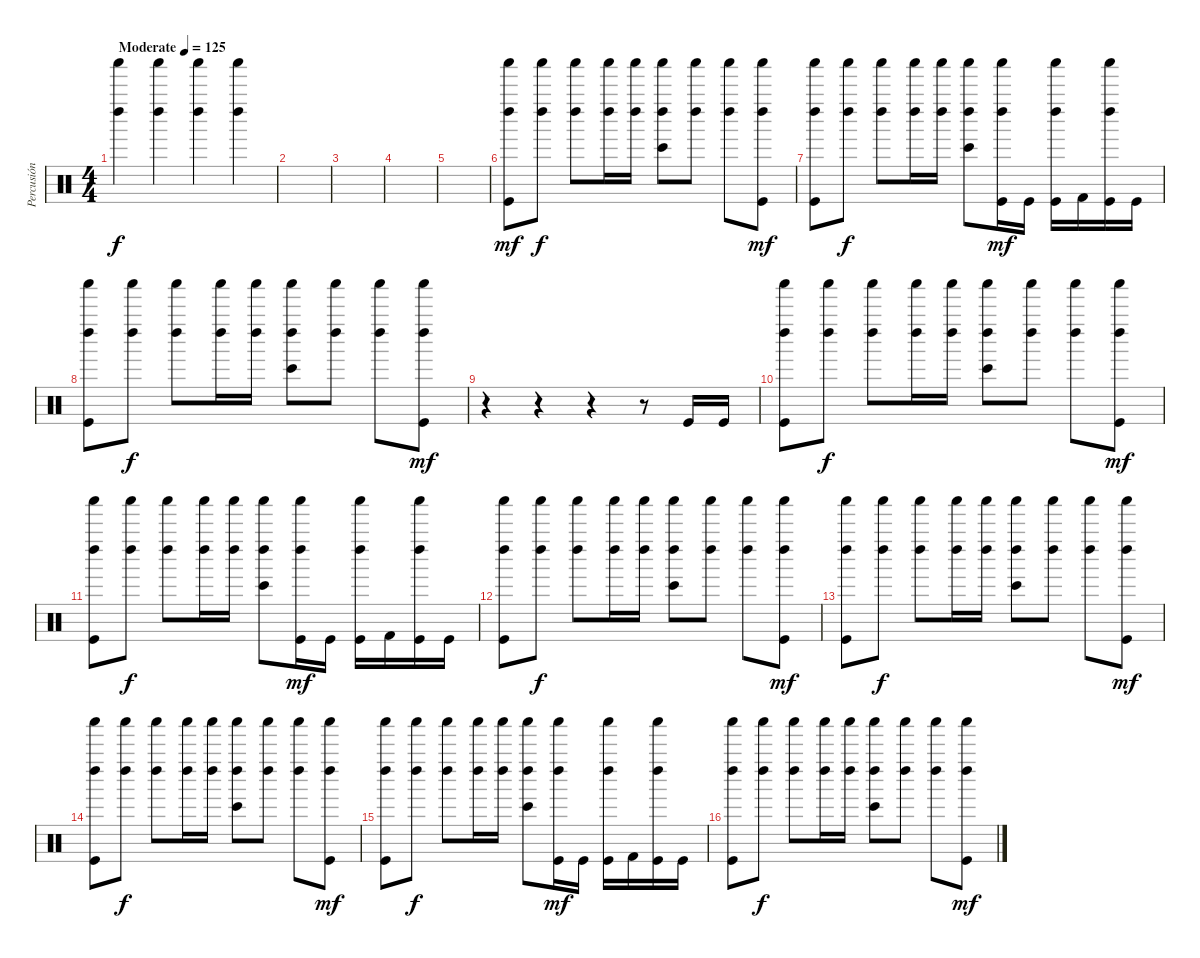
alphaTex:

\track ("Percusión" "Percusión") {instrument percussion}
\staff {score}
\articulation defaults
\ts (4 4)
\tempo (125 "Moderate")
\clef neutral
\ks c
("Shaker (hit)" "Left Maraca (hit)").4{dy f} ("Shaker (hit)" "Left Maraca (hit)").4 ("Shaker (hit)" "Left Maraca (hit)").4 ("Shaker (hit)" "Left Maraca (hit)").4 |
|
|
|
|
("Shaker (hit)" "Left Maraca (hit)" "Kick (hit)").8{dy mf} ("Shaker (hit)" "Left Maraca (hit)").8{dy f} ("Shaker (hit)" "Left Maraca (hit)").8 ("Shaker (hit)" "Left Maraca (hit)").16 ("Shaker (hit)" "Left Maraca (hit)").16 ("Shaker (hit)" "Left Maraca (hit)" "Bongo High (hit)").8 ("Shaker (hit)" "Left Maraca (hit)").8 ("Shaker (hit)" "Left Maraca (hit)").8 ("Shaker (hit)" "Left Maraca (hit)" "Kick (hit)").8{dy mf} |
("Shaker (hit)" "Left Maraca (hit)" "Kick (hit)").8 ("Shaker (hit)" "Left Maraca (hit)").8{dy f} ("Shaker (hit)" "Left Maraca (hit)").8 ("Shaker (hit)" "Left Maraca (hit)").16 ("Shaker (hit)" "Left Maraca (hit)").16 ("Shaker (hit)" "Left Maraca (hit)" "Bongo High (hit)").8 ("Shaker (hit)" "Left Maraca (hit)" "Kick (hit)").16{dy mf} "Kick (hit)".16 ("Shaker (hit)" "Left Maraca (hit)" "Kick (hit)").16 "Kick (hit) 2".16 ("Shaker (hit)" "Left Maraca (hit)" "Kick (hit)").16 "Kick (hit)".16 |
("Shaker (hit)" "Left Maraca (hit)" "Kick (hit)").8 ("Shaker (hit)" "Left Maraca (hit)").8{dy f} ("Shaker (hit)" "Left Maraca (hit)").8 ("Shaker (hit)" "Left Maraca (hit)").16 ("Shaker (hit)" "Left Maraca (hit)").16 ("Shaker (hit)" "Left Maraca (hit)" "Bongo High (hit)").8 ("Shaker (hit)" "Left Maraca (hit)").8 ("Shaker (hit)" "Left Maraca (hit)").8 ("Shaker (hit)" "Left Maraca (hit)" "Kick (hit)").8{dy mf} |
r.4 r.4 r.4 r.8 "Kick (hit)".16 "Kick (hit)".16 |
("Shaker (hit)" "Left Maraca (hit)" "Kick (hit)").8 ("Shaker (hit)" "Left Maraca (hit)").8{dy f} ("Shaker (hit)" "Left Maraca (hit)").8 ("Shaker (hit)" "Left Maraca (hit)").16 ("Shaker (hit)" "Left Maraca (hit)").16 ("Shaker (hit)" "Left Maraca (hit)" "Bongo High (hit)").8 ("Shaker (hit)" "Left Maraca (hit)").8 ("Shaker (hit)" "Left Maraca (hit)").8 ("Shaker (hit)" "Left Maraca (hit)" "Kick (hit)").8{dy mf} |
("Shaker (hit)" "Left Maraca (hit)" "Kick (hit)").8 ("Shaker (hit)" "Left Maraca (hit)").8{dy f} ("Shaker (hit)" "Left Maraca (hit)").8 ("Shaker (hit)" "Left Maraca (hit)").16 ("Shaker (hit)" "Left Maraca (hit)").16 ("Shaker (hit)" "Left Maraca (hit)" "Bongo High (hit)").8 ("Shaker (hit)" "Left Maraca (hit)" "Kick (hit)").16{dy mf} "Kick (hit)".16 ("Shaker (hit)" "Left Maraca (hit)" "Kick (hit)").16 "Kick (hit) 2".16 ("Shaker (hit)" "Left Maraca (hit)" "Kick (hit)").16 "Kick (hit)".16 |
("Shaker (hit)" "Left Maraca (hit)" "Kick (hit)").8 ("Shaker (hit)" "Left Maraca (hit)").8{dy f} ("Shaker (hit)" "Left Maraca (hit)").8 ("Shaker (hit)" "Left Maraca (hit)").16 ("Shaker (hit)" "Left Maraca (hit)").16 ("Shaker (hit)" "Left Maraca (hit)" "Bongo High (hit)").8 ("Shaker (hit)" "Left Maraca (hit)").8 ("Shaker (hit)" "Left Maraca (hit)").8 ("Shaker (hit)" "Left Maraca (hit)" "Kick (hit)").8{dy mf} |
("Shaker (hit)" "Left Maraca (hit)" "Kick (hit)").8 ("Shaker (hit)" "Left Maraca (hit)").8{dy f} ("Shaker (hit)" "Left Maraca (hit)").8 ("Shaker (hit)" "Left Maraca (hit)").16 ("Shaker (hit)" "Left Maraca (hit)").16 ("Shaker (hit)" "Left Maraca (hit)" "Bongo High (hit)").8 ("Shaker (hit)" "Left Maraca (hit)").8 ("Shaker (hit)" "Left Maraca (hit)").8 ("Shaker (hit)" "Left Maraca (hit)" "Kick (hit)").8{dy mf} |
("Shaker (hit)" "Left Maraca (hit)" "Kick (hit)").8 ("Shaker (hit)" "Left Maraca (hit)").8{dy f} ("Shaker (hit)" "Left Maraca (hit)").8 ("Shaker (hit)" "Left Maraca (hit)").16 ("Shaker (hit)" "Left Maraca (hit)").16 ("Shaker (hit)" "Left Maraca (hit)" "Bongo High (hit)").8 ("Shaker (hit)" "Left Maraca (hit)").8 ("Shaker (hit)" "Left Maraca (hit)").8 ("Shaker (hit)" "Left Maraca (hit)" "Kick (hit)").8{dy mf} |
("Shaker (hit)" "Left Maraca (hit)" "Kick (hit)").8 ("Shaker (hit)" "Left Maraca (hit)").8{dy f} ("Shaker (hit)" "Left Maraca (hit)").8 ("Shaker (hit)" "Left Maraca (hit)").16 ("Shaker (hit)" "Left Maraca (hit)").16 ("Shaker (hit)" "Left Maraca (hit)" "Bongo High (hit)").8 ("Shaker (hit)" "Left Maraca (hit)" "Kick (hit)").16{dy mf} "Kick (hit)".16 ("Shaker (hit)" "Left Maraca (hit)" "Kick (hit)").16 "Kick (hit) 2".16 ("Shaker (hit)" "Left Maraca (hit)" "Kick (hit)").16 "Kick (hit)".16 |
("Shaker (hit)" "Left Maraca (hit)" "Kick (hit)").8 ("Shaker (hit)" "Left Maraca (hit)").8{dy f} ("Shaker (hit)" "Left Maraca (hit)").8 ("Shaker (hit)" "Left Maraca (hit)").16 ("Shaker (hit)" "Left Maraca (hit)").16 ("Shaker (hit)" "Left Maraca (hit)" "Bongo High (hit)").8 ("Shaker (hit)" "Left Maraca (hit)").8 ("Shaker (hit)" "Left Maraca (hit)").8 ("Shaker (hit)" "Left Maraca (hit)" "Kick (hit)").8{dy mf}
